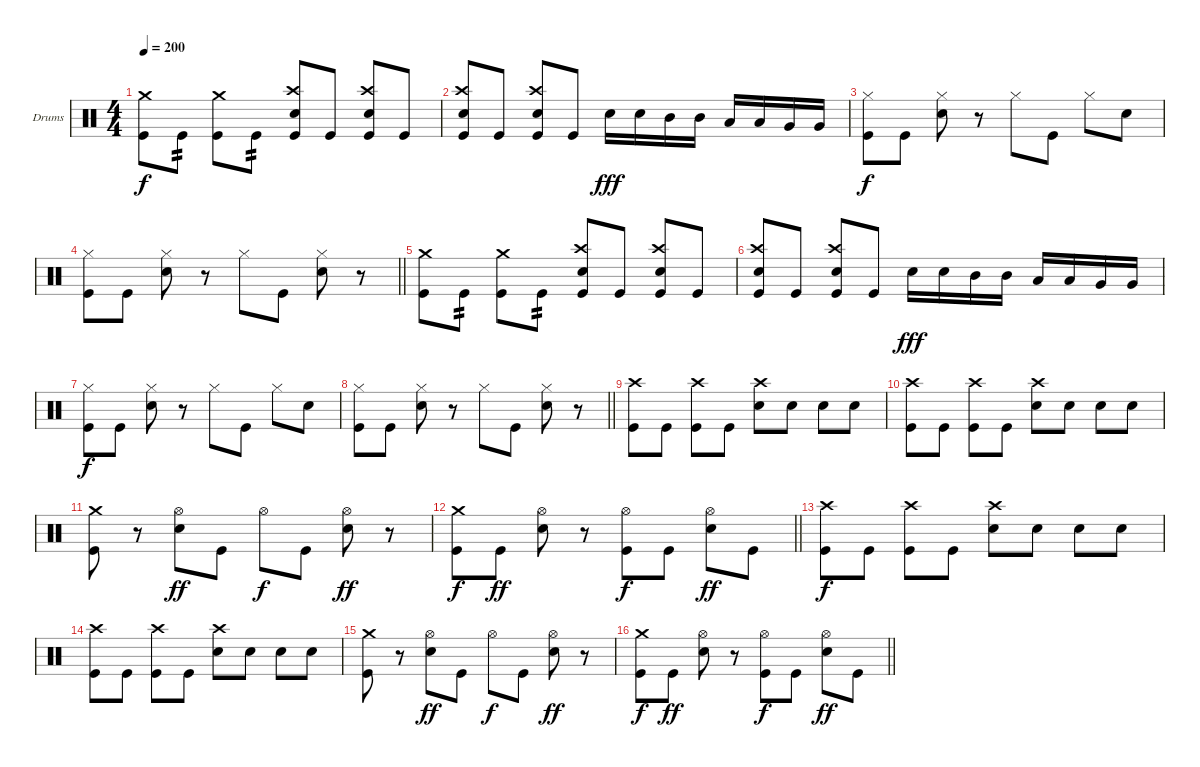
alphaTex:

\bracketExtendMode groupsimilarinstruments
\firstSystemTrackNameOrientation horizontal
\otherSystemsTrackNameOrientation horizontal
\track ("Drumkit" "Drums") {instrument percussion}
\staff {score}
\articulation defaults
\ts (4 4)
\section ("" "")
\tempo 200
\clef neutral
\ks c
("Crash medium (hit)" "Kick (hit)").8{dy f} "Kick (hit)".8{tp 2} ("Crash medium (hit)" "Kick (hit)").8 "Kick (hit)".8{tp 2} ("Crash high (hit)" "Snare (hit) 2" "Kick (hit)").8 "Kick (hit)".8 ("Crash high (hit)" "Snare (hit) 2" "Kick (hit)").8 "Kick (hit)".8 |
("Crash high (hit)" "Snare (hit) 2" "Kick (hit)").8 "Kick (hit)".8 ("Crash high (hit)" "Snare (hit) 2" "Kick (hit)").8 "Kick (hit)".8 "Snare (hit) 2".16{dy fff} "Snare (hit) 2".16 "Mid Tom (hit)".16 "Mid Tom (hit)".16 "Low Tom (hit)".16 "Low Tom (hit)".16 "Very Low Tom (hit)".16 "Very Low Tom (hit)".16 |
("Hi-Hat (closed)" "Kick (hit)").8{dy f} "Kick (hit)".8 ("Hi-Hat (closed)" "Snare (hit) 2").8 r.8 "Hi-Hat (closed)".8 "Kick (hit)".8 "Hi-Hat (closed)".8 "Snare (hit) 2".8 |
\barLineRight lightlight
("Hi-Hat (closed)" "Kick (hit)").8 "Kick (hit)".8 ("Hi-Hat (closed)" "Snare (hit) 2").8 r.8 "Hi-Hat (closed)".8 "Kick (hit)".8 ("Hi-Hat (closed)" "Snare (hit) 2").8 r.8 |
("Crash medium (hit)" "Kick (hit)").8 "Kick (hit)".8{tp 2} ("Crash medium (hit)" "Kick (hit)").8 "Kick (hit)".8{tp 2} ("Crash high (hit)" "Snare (hit) 2" "Kick (hit)").8 "Kick (hit)".8 ("Crash high (hit)" "Snare (hit) 2" "Kick (hit)").8 "Kick (hit)".8 |
("Crash high (hit)" "Snare (hit) 2" "Kick (hit)").8 "Kick (hit)".8 ("Crash high (hit)" "Snare (hit) 2" "Kick (hit)").8 "Kick (hit)".8 "Snare (hit) 2".16{dy fff} "Snare (hit) 2".16 "Mid Tom (hit)".16 "Mid Tom (hit)".16 "Low Tom (hit)".16 "Low Tom (hit)".16 "Very Low Tom (hit)".16 "Very Low Tom (hit)".16 |
("Hi-Hat (closed)" "Kick (hit)").8{dy f} "Kick (hit)".8 ("Hi-Hat (closed)" "Snare (hit) 2").8 r.8 "Hi-Hat (closed)".8 "Kick (hit)".8 "Hi-Hat (closed)".8 "Snare (hit) 2".8 |
\barLineRight lightlight
("Hi-Hat (closed)" "Kick (hit)").8 "Kick (hit)".8 ("Hi-Hat (closed)" "Snare (hit) 2").8 r.8 "Hi-Hat (closed)".8 "Kick (hit)".8 ("Hi-Hat (closed)" "Snare (hit) 2").8 r.8 |
\section ("" "")
("Crash high (hit)" "Kick (hit)").8 "Kick (hit)".8 ("Crash high (hit)" "Kick (hit)").8 "Kick (hit)".8 ("Crash high (hit)" "Snare (hit) 2").8 "Snare (hit) 2".8 "Snare (hit) 2".8 "Snare (hit) 2".8 |
("Crash high (hit)" "Kick (hit)").8 "Kick (hit)".8 ("Crash high (hit)" "Kick (hit)").8 "Kick (hit)".8 ("Crash high (hit)" "Snare (hit) 2").8 "Snare (hit) 2".8 "Snare (hit) 2".8 "Snare (hit) 2".8 |
("Crash medium (hit)" "Kick (hit)").8 r.8 ("Hi-Hat (open)" "Snare (hit) 2").8{dy ff} "Kick (hit)".8 "Hi-Hat (open)".8{dy f} "Kick (hit)".8 ("Hi-Hat (open)" "Snare (hit) 2").8{dy ff} r.8 |
\barLineRight lightlight
("Crash medium (hit)" "Kick (hit)").8{dy f} "Kick (hit)".8{dy ff} ("Hi-Hat (open)" "Snare (hit) 2").8 r.8 ("Hi-Hat (open)" "Kick (hit)").8{dy f} "Kick (hit)".8 ("Hi-Hat (open)" "Snare (hit) 2").8{dy ff} "Kick (hit)".8 |
("Crash high (hit)" "Kick (hit)").8{dy f} "Kick (hit)".8 ("Crash high (hit)" "Kick (hit)").8 "Kick (hit)".8 ("Crash high (hit)" "Snare (hit) 2").8 "Snare (hit) 2".8 "Snare (hit) 2".8 "Snare (hit) 2".8 |
("Crash high (hit)" "Kick (hit)").8 "Kick (hit)".8 ("Crash high (hit)" "Kick (hit)").8 "Kick (hit)".8 ("Crash high (hit)" "Snare (hit) 2").8 "Snare (hit) 2".8 "Snare (hit) 2".8 "Snare (hit) 2".8 |
("Crash medium (hit)" "Kick (hit)").8 r.8 ("Hi-Hat (open)" "Snare (hit) 2").8{dy ff} "Kick (hit)".8 "Hi-Hat (open)".8{dy f} "Kick (hit)".8 ("Hi-Hat (open)" "Snare (hit) 2").8{dy ff} r.8 |
\barLineRight lightlight
("Crash medium (hit)" "Kick (hit)").8{dy f} "Kick (hit)".8{dy ff} ("Hi-Hat (open)" "Snare (hit) 2").8 r.8 ("Hi-Hat (open)" "Kick (hit)").8{dy f} "Kick (hit)".8 ("Hi-Hat (open)" "Snare (hit) 2").8{dy ff} "Kick (hit)".8
